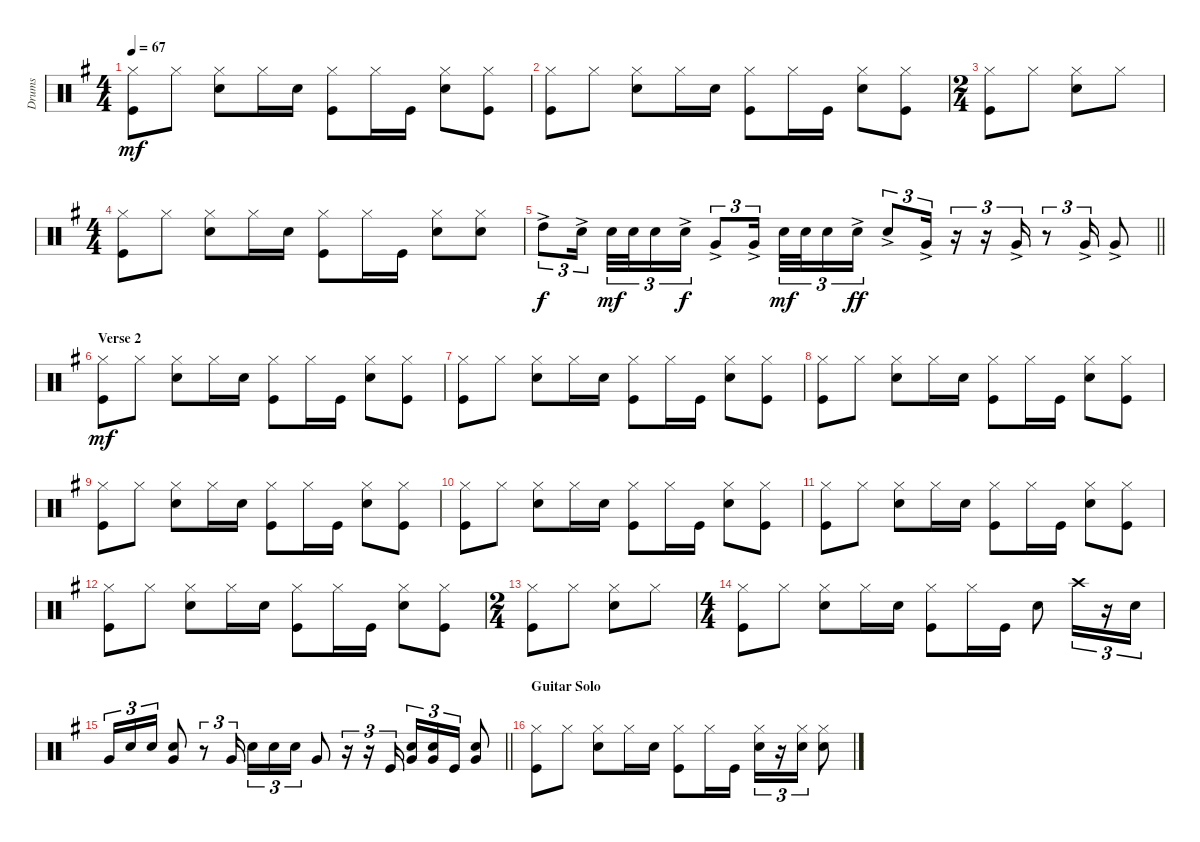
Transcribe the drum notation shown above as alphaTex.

\track ("Drums" "Drums") {instrument percussion}
\staff {score}
\articulation defaults
\ts (4 4)
\tempo 67
\clef neutral
\ks g
("Kick (hit)" "Hi-Hat (closed)").8{dy mf} "Hi-Hat (closed)".8 ("Hi-Hat (closed)" "Snare (hit) 2").8 "Hi-Hat (closed)".16 "Snare (hit) 2".16 ("Kick (hit)" "Hi-Hat (closed)").8 "Hi-Hat (closed)".16 "Kick (hit)".16 ("Hi-Hat (closed)" "Snare (hit) 2").8 ("Hi-Hat (closed)" "Kick (hit)").8 |
("Kick (hit)" "Hi-Hat (closed)").8 "Hi-Hat (closed)".8 ("Hi-Hat (closed)" "Snare (hit) 2").8 "Hi-Hat (closed)".16 "Snare (hit) 2".16 ("Kick (hit)" "Hi-Hat (closed)").8 "Hi-Hat (closed)".16 "Kick (hit)".16 ("Hi-Hat (closed)" "Snare (hit) 2").8 ("Hi-Hat (closed)" "Kick (hit)").8 |
\ts (2 4)
("Kick (hit)" "Hi-Hat (closed)").8 "Hi-Hat (closed)".8 ("Hi-Hat (closed)" "Snare (hit) 2").8 "Hi-Hat (closed)".8 |
\ts (4 4)
("Kick (hit)" "Hi-Hat (closed)").8 "Hi-Hat (closed)".8 ("Hi-Hat (closed)" "Snare (hit) 2").8 "Hi-Hat (closed)".16 "Snare (hit) 2".16 ("Kick (hit)" "Hi-Hat (closed)").8 "Hi-Hat (closed)".16 "Kick (hit)".16 ("Hi-Hat (closed)" "Snare (hit) 2").8 ("Hi-Hat (closed)" "Snare (hit) 2").8 |
\barLineRight lightlight "High Tom (hit)"{ac}.8{tu (3 2) dy f} "Snare (hit) 2"{ac}.16{tu (3 2)} "Snare (hit) 2".32{tu (3 2) dy mf} "Snare (hit) 2".32{tu (3 2)} "Snare (hit) 2".16{tu (3 2)} "Snare (hit) 2"{ac}.16{tu (3 2) dy f} "Very Low Tom (hit)"{ac}.8{tu (3 2)} "Very Low Tom (hit)"{ac}.16{tu (3 2)} "Snare (hit) 2".32{tu (3 2) dy mf} "Snare (hit) 2".32{tu (3 2)} "Snare (hit) 2".16{tu (3 2)} "Snare (hit) 2"{ac}.16{tu (3 2) dy ff} "Snare (hit) 2"{ac}.8{tu (3 2)} "Very Low Tom (hit)"{ac}.16{tu (3 2)}
r.16{tu (3 2)} r.16{tu (3 2)} "Very Low Tom (hit)"{ac}.16{tu (3 2)} r.8{tu (3 2)} "Very Low Tom (hit)"{ac}.16{tu (3 2)} "Very Low Tom (hit)"{ac}.8 |
\section ("" "Verse 2")
("Kick (hit)" "Hi-Hat (closed)").8{dy mf} "Hi-Hat (closed)".8 ("Hi-Hat (closed)" "Snare (hit) 2").8 "Hi-Hat (closed)".16 "Snare (hit) 2".16 ("Kick (hit)" "Hi-Hat (closed)").8 "Hi-Hat (closed)".16 "Kick (hit)".16 ("Hi-Hat (closed)" "Snare (hit) 2").8 ("Hi-Hat (closed)" "Kick (hit)").8 |
("Kick (hit)" "Hi-Hat (closed)").8 "Hi-Hat (closed)".8 ("Hi-Hat (closed)" "Snare (hit) 2").8 "Hi-Hat (closed)".16 "Snare (hit) 2".16 ("Kick (hit)" "Hi-Hat (closed)").8 "Hi-Hat (closed)".16 "Kick (hit)".16 ("Hi-Hat (closed)" "Snare (hit) 2").8 ("Hi-Hat (closed)" "Kick (hit)").8 |
("Kick (hit)" "Hi-Hat (closed)").8 "Hi-Hat (closed)".8 ("Hi-Hat (closed)" "Snare (hit) 2").8 "Hi-Hat (closed)".16 "Snare (hit) 2".16 ("Kick (hit)" "Hi-Hat (closed)").8 "Hi-Hat (closed)".16 "Kick (hit)".16 ("Hi-Hat (closed)" "Snare (hit) 2").8 ("Hi-Hat (closed)" "Kick (hit)").8 |
("Kick (hit)" "Hi-Hat (closed)").8 "Hi-Hat (closed)".8 ("Hi-Hat (closed)" "Snare (hit) 2").8 "Hi-Hat (closed)".16 "Snare (hit) 2".16 ("Kick (hit)" "Hi-Hat (closed)").8 "Hi-Hat (closed)".16 "Kick (hit)".16 ("Hi-Hat (closed)" "Snare (hit) 2").8 ("Hi-Hat (closed)" "Kick (hit)").8 |
("Kick (hit)" "Hi-Hat (closed)").8 "Hi-Hat (closed)".8 ("Hi-Hat (closed)" "Snare (hit) 2").8 "Hi-Hat (closed)".16 "Snare (hit) 2".16 ("Kick (hit)" "Hi-Hat (closed)").8 "Hi-Hat (closed)".16 "Kick (hit)".16 ("Hi-Hat (closed)" "Snare (hit) 2").8 ("Hi-Hat (closed)" "Kick (hit)").8 |
("Kick (hit)" "Hi-Hat (closed)").8 "Hi-Hat (closed)".8 ("Hi-Hat (closed)" "Snare (hit) 2").8 "Hi-Hat (closed)".16 "Snare (hit) 2".16 ("Kick (hit)" "Hi-Hat (closed)").8 "Hi-Hat (closed)".16 "Kick (hit)".16 ("Hi-Hat (closed)" "Snare (hit) 2").8 ("Hi-Hat (closed)" "Kick (hit)").8 |
("Kick (hit)" "Hi-Hat (closed)").8 "Hi-Hat (closed)".8 ("Hi-Hat (closed)" "Snare (hit) 2").8 "Hi-Hat (closed)".16 "Snare (hit) 2".16 ("Kick (hit)" "Hi-Hat (closed)").8 "Hi-Hat (closed)".16 "Kick (hit)".16 ("Hi-Hat (closed)" "Snare (hit) 2").8 ("Hi-Hat (closed)" "Kick (hit)").8 |
\ts (2 4)
("Kick (hit)" "Hi-Hat (closed)").8 "Hi-Hat (closed)".8 ("Hi-Hat (closed)" "Snare (hit) 2").8 "Hi-Hat (closed)".8 |
\ts (4 4)
("Kick (hit)" "Hi-Hat (closed)").8 "Hi-Hat (closed)".8 ("Hi-Hat (closed)" "Snare (hit) 2").8 "Hi-Hat (closed)".16 "Snare (hit) 2".16 ("Kick (hit)" "Hi-Hat (closed)").8 "Hi-Hat (closed)".16 "Kick (hit)".16 "Snare (hit) 2".8 "Crash high (hit)".16{tu (3 2)} r.16{tu (3 2)} "Snare (hit) 2".16{tu (3 2)} |
\barLineRight lightlight "Very Low Tom (hit)".16{tu (3 2)} "Snare (hit) 2".16{tu (3 2)} "Snare (hit) 2".16{tu (3 2)}
("Snare (hit) 2" "Very Low Tom (hit)").8 r.8{tu (3 2)} "Very Low Tom (hit)".16{tu (3 2)} "Snare (hit) 2".16{tu (3 2)} "Snare (hit) 2".16{tu (3 2)} "Snare (hit) 2".16{tu (3 2)} "Very Low Tom (hit)".8 r.16{tu (3 2)} r.16{tu (3 2)} "Kick (hit)".16{tu (3 2)} ("Very Low Tom (hit)" "Snare (hit) 2").16{tu (3 2)} ("Very Low Tom (hit)" "Snare (hit) 2").16{tu (3 2)} "Kick (hit)".16{tu (3 2)} ("Snare (hit) 2" "Very Low Tom (hit)").8 |
\section ("" "Guitar Solo")
("Kick (hit)" "Hi-Hat (closed)").8 "Hi-Hat (closed)".8 ("Hi-Hat (closed)" "Snare (hit) 2").8 "Hi-Hat (closed)".16 "Snare (hit) 2".16 ("Kick (hit)" "Hi-Hat (closed)").8 "Hi-Hat (closed)".16 "Kick (hit)".16 ("Hi-Hat (closed)" "Snare (hit) 2").16{tu (3 2)} r.16{tu (3 2)} ("Hi-Hat (closed)" "Snare (hit) 2").16{tu (3 2)} ("Snare (hit) 2" "Hi-Hat (closed)").8
